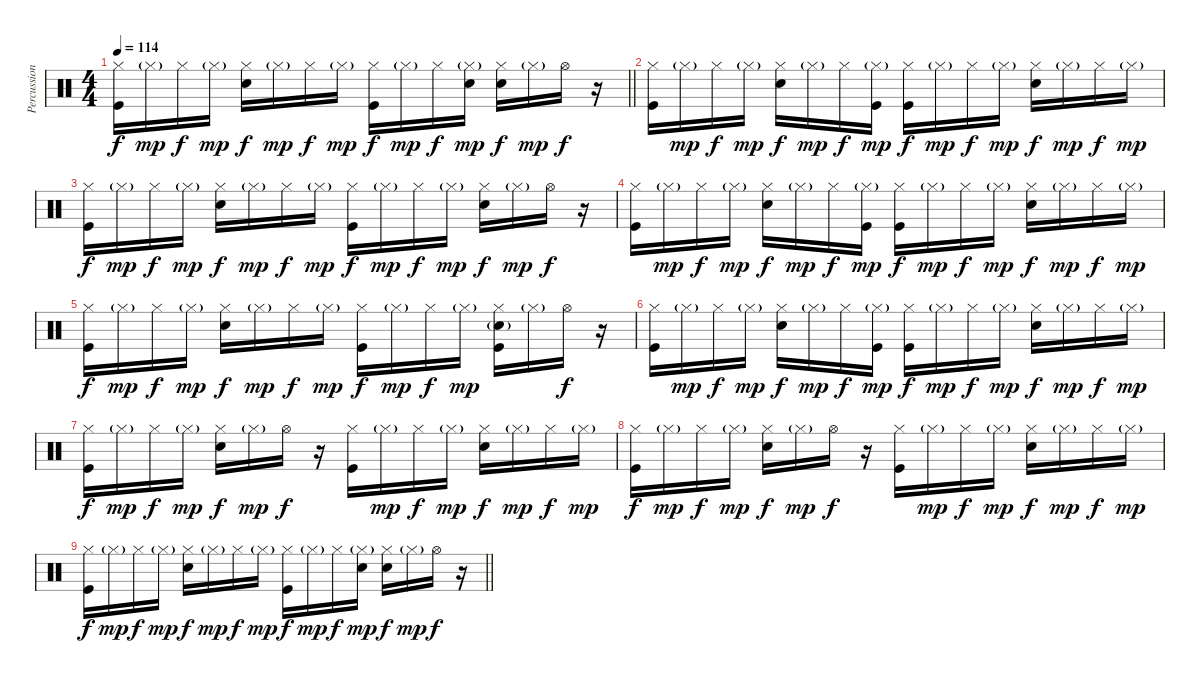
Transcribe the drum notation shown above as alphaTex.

\track ("Percussion" "Percussion") {instrument percussion bank 177}
\staff {score}
\articulation defaults
\ts (4 4)
\tempo 114
\clef neutral
\barLineRight lightlight
\ks c
("Hi-Hat (closed)" "Kick (hit)").16{dy f} "Hi-Hat (closed)"{g}.16{dy mp} "Hi-Hat (closed)".16{dy f} "Hi-Hat (closed)"{g}.16{dy mp} ("Hi-Hat (closed)" "Snare (hit) 2").16{dy f} "Hi-Hat (closed)"{g}.16{dy mp} "Hi-Hat (closed)".16{dy f} "Hi-Hat (closed)"{g}.16{dy mp} ("Hi-Hat (closed)" "Kick (hit)").16{dy f} "Hi-Hat (closed)"{g}.16{dy mp} "Hi-Hat (closed)".16{dy f} ("Hi-Hat (closed)"{g} "Snare (hit) 2").16{dy mp} ("Hi-Hat (closed)" "Snare (hit) 2").16{dy f} "Hi-Hat (closed)"{g}.16{dy mp} "Hi-Hat (open)".16{dy f} r.16 |
("Hi-Hat (closed)" "Kick (hit)").16 "Hi-Hat (closed)"{g}.16{dy mp} "Hi-Hat (closed)".16{dy f} "Hi-Hat (closed)"{g}.16{dy mp} ("Hi-Hat (closed)" "Snare (hit) 2").16{dy f} "Hi-Hat (closed)"{g}.16{dy mp} "Hi-Hat (closed)".16{dy f} ("Hi-Hat (closed)"{g} "Kick (hit)").16{dy mp} ("Hi-Hat (closed)" "Kick (hit)").16{dy f} "Hi-Hat (closed)"{g}.16{dy mp} "Hi-Hat (closed)".16{dy f} "Hi-Hat (closed)"{g}.16{dy mp} ("Hi-Hat (closed)" "Snare (hit) 2").16{dy f} "Hi-Hat (closed)"{g}.16{dy mp} "Hi-Hat (closed)".16{dy f} "Hi-Hat (closed)"{g}.16{dy mp} |
("Hi-Hat (closed)" "Kick (hit)").16{dy f} "Hi-Hat (closed)"{g}.16{dy mp} "Hi-Hat (closed)".16{dy f} "Hi-Hat (closed)"{g}.16{dy mp} ("Hi-Hat (closed)" "Snare (hit) 2").16{dy f} "Hi-Hat (closed)"{g}.16{dy mp} "Hi-Hat (closed)".16{dy f} "Hi-Hat (closed)"{g}.16{dy mp} ("Hi-Hat (closed)" "Kick (hit)").16{dy f} "Hi-Hat (closed)"{g}.16{dy mp} "Hi-Hat (closed)".16{dy f} "Hi-Hat (closed)"{g}.16{dy mp} ("Hi-Hat (closed)" "Snare (hit) 2").16{dy f} "Hi-Hat (closed)"{g}.16{dy mp} "Hi-Hat (open)".16{dy f} r.16 |
("Hi-Hat (closed)" "Kick (hit)").16 "Hi-Hat (closed)"{g}.16{dy mp} "Hi-Hat (closed)".16{dy f} "Hi-Hat (closed)"{g}.16{dy mp} ("Hi-Hat (closed)" "Snare (hit) 2").16{dy f} "Hi-Hat (closed)"{g}.16{dy mp} "Hi-Hat (closed)".16{dy f} ("Hi-Hat (closed)"{g} "Kick (hit)").16{dy mp} ("Hi-Hat (closed)" "Kick (hit)").16{dy f} "Hi-Hat (closed)"{g}.16{dy mp} "Hi-Hat (closed)".16{dy f} "Hi-Hat (closed)"{g}.16{dy mp} ("Hi-Hat (closed)" "Snare (hit) 2").16{dy f} "Hi-Hat (closed)"{g}.16{dy mp} "Hi-Hat (closed)".16{dy f} "Hi-Hat (closed)"{g}.16{dy mp} |
("Hi-Hat (closed)" "Kick (hit)").16{dy f} "Hi-Hat (closed)"{g}.16{dy mp} "Hi-Hat (closed)".16{dy f} "Hi-Hat (closed)"{g}.16{dy mp} ("Hi-Hat (closed)" "Snare (hit) 2").16{dy f} "Hi-Hat (closed)"{g}.16{dy mp} "Hi-Hat (closed)".16{dy f} "Hi-Hat (closed)"{g}.16{dy mp} ("Hi-Hat (closed)" "Kick (hit)").16{dy f} "Hi-Hat (closed)"{g}.16{dy mp} "Hi-Hat (closed)".16{dy f} "Hi-Hat (closed)"{g}.16{dy mp} ("Hi-Hat (closed)" "Snare (hit) 2"{g} "Kick (hit)").16 "Hi-Hat (closed)"{g}.16 "Hi-Hat (open)".16{dy f} r.16 |
("Hi-Hat (closed)" "Kick (hit)").16 "Hi-Hat (closed)"{g}.16{dy mp} "Hi-Hat (closed)".16{dy f} "Hi-Hat (closed)"{g}.16{dy mp} ("Hi-Hat (closed)" "Snare (hit) 2").16{dy f} "Hi-Hat (closed)"{g}.16{dy mp} "Hi-Hat (closed)".16{dy f} ("Hi-Hat (closed)"{g} "Kick (hit)").16{dy mp} ("Hi-Hat (closed)" "Kick (hit)").16{dy f} "Hi-Hat (closed)"{g}.16{dy mp} "Hi-Hat (closed)".16{dy f} "Hi-Hat (closed)"{g}.16{dy mp} ("Hi-Hat (closed)" "Snare (hit) 2").16{dy f} "Hi-Hat (closed)"{g}.16{dy mp} "Hi-Hat (closed)".16{dy f} "Hi-Hat (closed)"{g}.16{dy mp} |
("Hi-Hat (closed)" "Kick (hit)").16{dy f} "Hi-Hat (closed)"{g}.16{dy mp} "Hi-Hat (closed)".16{dy f} "Hi-Hat (closed)"{g}.16{dy mp} ("Hi-Hat (closed)" "Snare (hit) 2").16{dy f} "Hi-Hat (closed)"{g}.16{dy mp} "Hi-Hat (open)".16{dy f} r.16 ("Hi-Hat (closed)" "Kick (hit)").16 "Hi-Hat (closed)"{g}.16{dy mp} "Hi-Hat (closed)".16{dy f} "Hi-Hat (closed)"{g}.16{dy mp} ("Hi-Hat (closed)" "Snare (hit) 2").16{dy f} "Hi-Hat (closed)"{g}.16{dy mp} "Hi-Hat (closed)".16{dy f} "Hi-Hat (closed)"{g}.16{dy mp} |
("Hi-Hat (closed)" "Kick (hit)").16{dy f} "Hi-Hat (closed)"{g}.16{dy mp} "Hi-Hat (closed)".16{dy f} "Hi-Hat (closed)"{g}.16{dy mp} ("Hi-Hat (closed)" "Snare (hit) 2").16{dy f} "Hi-Hat (closed)"{g}.16{dy mp} "Hi-Hat (open)".16{dy f} r.16 ("Hi-Hat (closed)" "Kick (hit)").16 "Hi-Hat (closed)"{g}.16{dy mp} "Hi-Hat (closed)".16{dy f} "Hi-Hat (closed)"{g}.16{dy mp} ("Hi-Hat (closed)" "Snare (hit) 2").16{dy f} "Hi-Hat (closed)"{g}.16{dy mp} "Hi-Hat (closed)".16{dy f} "Hi-Hat (closed)"{g}.16{dy mp} |
\barLineRight lightlight
("Hi-Hat (closed)" "Kick (hit)").16{dy f} "Hi-Hat (closed)"{g}.16{dy mp} "Hi-Hat (closed)".16{dy f} "Hi-Hat (closed)"{g}.16{dy mp} ("Hi-Hat (closed)" "Snare (hit) 2").16{dy f} "Hi-Hat (closed)"{g}.16{dy mp} "Hi-Hat (closed)".16{dy f} "Hi-Hat (closed)"{g}.16{dy mp} ("Hi-Hat (closed)" "Kick (hit)").16{dy f} "Hi-Hat (closed)"{g}.16{dy mp} "Hi-Hat (closed)".16{dy f} ("Hi-Hat (closed)"{g} "Snare (hit) 2").16{dy mp} ("Hi-Hat (closed)" "Snare (hit) 2").16{dy f} "Hi-Hat (closed)"{g}.16{dy mp} "Hi-Hat (open)".16{dy f} r.16
